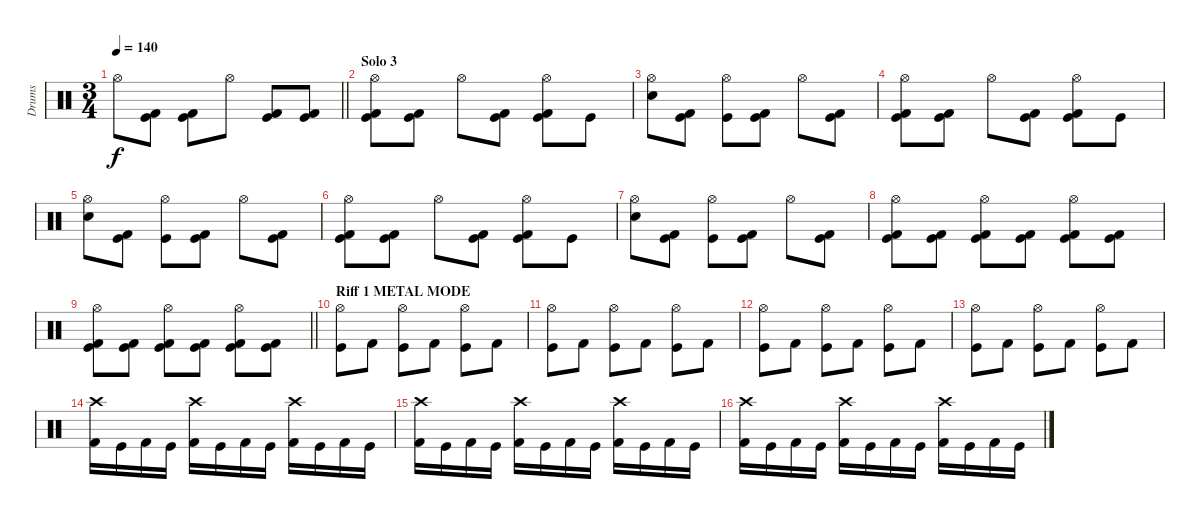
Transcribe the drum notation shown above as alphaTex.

\track ("Drums" "Drums") {instrument percussion}
\staff {score}
\articulation defaults
\ts (3 4)
\tempo 140
\clef neutral
\barLineRight lightlight
\ks c "Hi-Hat (open)".8{dy f}
("Kick (hit)" "Kick (hit) 2").8 ("Kick (hit)" "Kick (hit) 2").8 "Hi-Hat (open)".8 ("Kick (hit)" "Kick (hit) 2").8 ("Kick (hit)" "Kick (hit) 2").8 |
\section ("" "Solo 3")
("Kick (hit)" "Kick (hit) 2" "Hi-Hat (open)").8 ("Kick (hit) 2" "Kick (hit)").8 "Hi-Hat (open)".8 ("Kick (hit) 2" "Kick (hit)").8 ("Hi-Hat (open)" "Kick (hit) 2" "Kick (hit)").8 "Kick (hit)".8 |
("Hi-Hat (open)" "Snare (hit) 2").8 ("Kick (hit) 2" "Kick (hit)").8 ("Kick (hit)" "Hi-Hat (open)").8 ("Kick (hit)" "Kick (hit) 2").8 "Hi-Hat (open)".8 ("Kick (hit) 2" "Kick (hit)").8 |
("Kick (hit)" "Kick (hit) 2" "Hi-Hat (open)").8 ("Kick (hit) 2" "Kick (hit)").8 "Hi-Hat (open)".8 ("Kick (hit) 2" "Kick (hit)").8 ("Hi-Hat (open)" "Kick (hit) 2" "Kick (hit)").8 "Kick (hit)".8 |
("Hi-Hat (open)" "Snare (hit) 2").8 ("Kick (hit) 2" "Kick (hit)").8 ("Kick (hit)" "Hi-Hat (open)").8 ("Kick (hit)" "Kick (hit) 2").8 "Hi-Hat (open)".8 ("Kick (hit) 2" "Kick (hit)").8 |
("Kick (hit)" "Kick (hit) 2" "Hi-Hat (open)").8 ("Kick (hit) 2" "Kick (hit)").8 "Hi-Hat (open)".8 ("Kick (hit) 2" "Kick (hit)").8 ("Hi-Hat (open)" "Kick (hit) 2" "Kick (hit)").8 "Kick (hit)".8 |
("Hi-Hat (open)" "Snare (hit) 2").8 ("Kick (hit) 2" "Kick (hit)").8 ("Kick (hit)" "Hi-Hat (open)").8 ("Kick (hit)" "Kick (hit) 2").8 "Hi-Hat (open)".8 ("Kick (hit) 2" "Kick (hit)").8 |
("Kick (hit)" "Kick (hit) 2" "Hi-Hat (open)").8 ("Kick (hit)" "Kick (hit) 2").8 ("Kick (hit)" "Kick (hit) 2" "Hi-Hat (open)").8 ("Kick (hit)" "Kick (hit) 2").8 ("Kick (hit)" "Kick (hit) 2" "Hi-Hat (open)").8 ("Kick (hit)" "Kick (hit) 2").8 |
\barLineRight lightlight
("Kick (hit)" "Kick (hit) 2" "Hi-Hat (open)").8 ("Kick (hit)" "Kick (hit) 2").8 ("Kick (hit)" "Kick (hit) 2" "Hi-Hat (open)").8 ("Kick (hit)" "Kick (hit) 2").8 ("Kick (hit)" "Kick (hit) 2" "Hi-Hat (open)").8 ("Kick (hit)" "Kick (hit) 2").8 |
\section ("" "Riff 1 METAL MODE")
("Kick (hit)" "Hi-Hat (open)").8 "Kick (hit) 2".8 ("Kick (hit)" "Hi-Hat (open)").8 "Kick (hit) 2".8 ("Kick (hit)" "Hi-Hat (open)").8 "Kick (hit) 2".8 |
("Kick (hit)" "Hi-Hat (open)").8 "Kick (hit) 2".8 ("Kick (hit)" "Hi-Hat (open)").8 "Kick (hit) 2".8 ("Kick (hit)" "Hi-Hat (open)").8 "Kick (hit) 2".8 |
("Kick (hit)" "Hi-Hat (open)").8 "Kick (hit) 2".8 ("Kick (hit)" "Hi-Hat (open)").8 "Kick (hit) 2".8 ("Kick (hit)" "Hi-Hat (open)").8 "Kick (hit) 2".8 |
("Kick (hit)" "Hi-Hat (open)").8 "Kick (hit) 2".8 ("Kick (hit)" "Hi-Hat (open)").8 "Kick (hit) 2".8 ("Kick (hit)" "Hi-Hat (open)").8 "Kick (hit) 2".8 |
("Crash high (hit)" "Kick (hit) 2").16 "Kick (hit)".16 "Kick (hit) 2".16 "Kick (hit)".16 ("Crash high (hit)" "Kick (hit) 2").16 "Kick (hit)".16 "Kick (hit) 2".16 "Kick (hit)".16 ("Crash high (hit)" "Kick (hit) 2").16 "Kick (hit)".16 "Kick (hit) 2".16 "Kick (hit)".16 |
("Crash high (hit)" "Kick (hit) 2").16 "Kick (hit)".16 "Kick (hit) 2".16 "Kick (hit)".16 ("Crash high (hit)" "Kick (hit) 2").16 "Kick (hit)".16 "Kick (hit) 2".16 "Kick (hit)".16 ("Crash high (hit)" "Kick (hit) 2").16 "Kick (hit)".16 "Kick (hit) 2".16 "Kick (hit)".16 |
("Crash high (hit)" "Kick (hit) 2").16 "Kick (hit)".16 "Kick (hit) 2".16 "Kick (hit)".16 ("Crash high (hit)" "Kick (hit) 2").16 "Kick (hit)".16 "Kick (hit) 2".16 "Kick (hit)".16 ("Crash high (hit)" "Kick (hit) 2").16 "Kick (hit)".16 "Kick (hit) 2".16 "Kick (hit)".16
